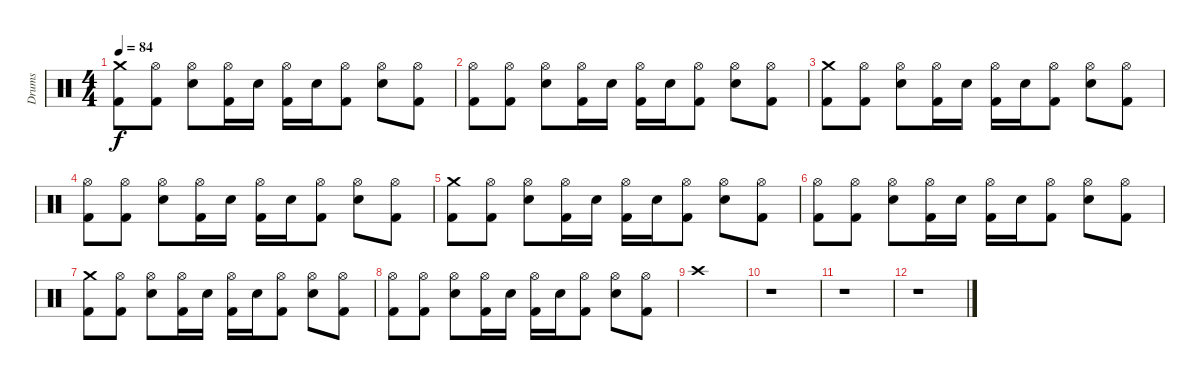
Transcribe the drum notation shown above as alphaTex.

\track ("Drums" "Drums") {instrument percussion}
\staff {score}
\articulation defaults
\ts (4 4)
\tempo 84
\clef neutral
\ks c
("Crash medium (hit)" "Kick (hit) 2").8{dy f} ("Hi-Hat (open)" "Kick (hit) 2").8 ("Hi-Hat (open)" "Snare (hit) 2").8 ("Hi-Hat (open)" "Kick (hit) 2").16 "Snare (hit) 2".16 ("Hi-Hat (open)" "Kick (hit) 2").16 "Snare (hit) 2".16 ("Hi-Hat (open)" "Kick (hit) 2").8 ("Hi-Hat (open)" "Snare (hit) 2").8 ("Hi-Hat (open)" "Kick (hit) 2").8 |
("Hi-Hat (open)" "Kick (hit) 2").8 ("Hi-Hat (open)" "Kick (hit) 2").8 ("Hi-Hat (open)" "Snare (hit) 2").8 ("Hi-Hat (open)" "Kick (hit) 2").16 "Snare (hit) 2".16 ("Hi-Hat (open)" "Kick (hit) 2").16 "Snare (hit) 2".16 ("Hi-Hat (open)" "Kick (hit) 2").8 ("Hi-Hat (open)" "Snare (hit) 2").8 ("Hi-Hat (open)" "Kick (hit) 2").8 |
("Crash medium (hit)" "Kick (hit) 2").8 ("Hi-Hat (open)" "Kick (hit) 2").8 ("Hi-Hat (open)" "Snare (hit) 2").8 ("Hi-Hat (open)" "Kick (hit) 2").16 "Snare (hit) 2".16 ("Hi-Hat (open)" "Kick (hit) 2").16 "Snare (hit) 2".16 ("Hi-Hat (open)" "Kick (hit) 2").8 ("Hi-Hat (open)" "Snare (hit) 2").8 ("Hi-Hat (open)" "Kick (hit) 2").8 |
("Hi-Hat (open)" "Kick (hit) 2").8 ("Hi-Hat (open)" "Kick (hit) 2").8 ("Hi-Hat (open)" "Snare (hit) 2").8 ("Hi-Hat (open)" "Kick (hit) 2").16 "Snare (hit) 2".16 ("Hi-Hat (open)" "Kick (hit) 2").16 "Snare (hit) 2".16 ("Hi-Hat (open)" "Kick (hit) 2").8 ("Hi-Hat (open)" "Snare (hit) 2").8 ("Hi-Hat (open)" "Kick (hit) 2").8 |
("Crash medium (hit)" "Kick (hit) 2").8 ("Hi-Hat (open)" "Kick (hit) 2").8 ("Hi-Hat (open)" "Snare (hit) 2").8 ("Hi-Hat (open)" "Kick (hit) 2").16 "Snare (hit) 2".16 ("Hi-Hat (open)" "Kick (hit) 2").16 "Snare (hit) 2".16 ("Hi-Hat (open)" "Kick (hit) 2").8 ("Hi-Hat (open)" "Snare (hit) 2").8 ("Hi-Hat (open)" "Kick (hit) 2").8 |
("Hi-Hat (open)" "Kick (hit) 2").8 ("Hi-Hat (open)" "Kick (hit) 2").8 ("Hi-Hat (open)" "Snare (hit) 2").8 ("Hi-Hat (open)" "Kick (hit) 2").16 "Snare (hit) 2".16 ("Hi-Hat (open)" "Kick (hit) 2").16 "Snare (hit) 2".16 ("Hi-Hat (open)" "Kick (hit) 2").8 ("Hi-Hat (open)" "Snare (hit) 2").8 ("Hi-Hat (open)" "Kick (hit) 2").8 |
("Crash medium (hit)" "Kick (hit) 2").8 ("Hi-Hat (open)" "Kick (hit) 2").8 ("Hi-Hat (open)" "Snare (hit) 2").8 ("Hi-Hat (open)" "Kick (hit) 2").16 "Snare (hit) 2".16 ("Hi-Hat (open)" "Kick (hit) 2").16 "Snare (hit) 2".16 ("Hi-Hat (open)" "Kick (hit) 2").8 ("Hi-Hat (open)" "Snare (hit) 2").8 ("Hi-Hat (open)" "Kick (hit) 2").8 |
("Hi-Hat (open)" "Kick (hit) 2").8 ("Hi-Hat (open)" "Kick (hit) 2").8 ("Hi-Hat (open)" "Snare (hit) 2").8 ("Hi-Hat (open)" "Kick (hit) 2").16 "Snare (hit) 2".16 ("Hi-Hat (open)" "Kick (hit) 2").16 "Snare (hit) 2".16 ("Hi-Hat (open)" "Kick (hit) 2").8 ("Hi-Hat (open)" "Snare (hit) 2").8 ("Hi-Hat (open)" "Kick (hit) 2").8 |
"Crash high (hit)".1 |
r.1 |
r.1 |
r.1
